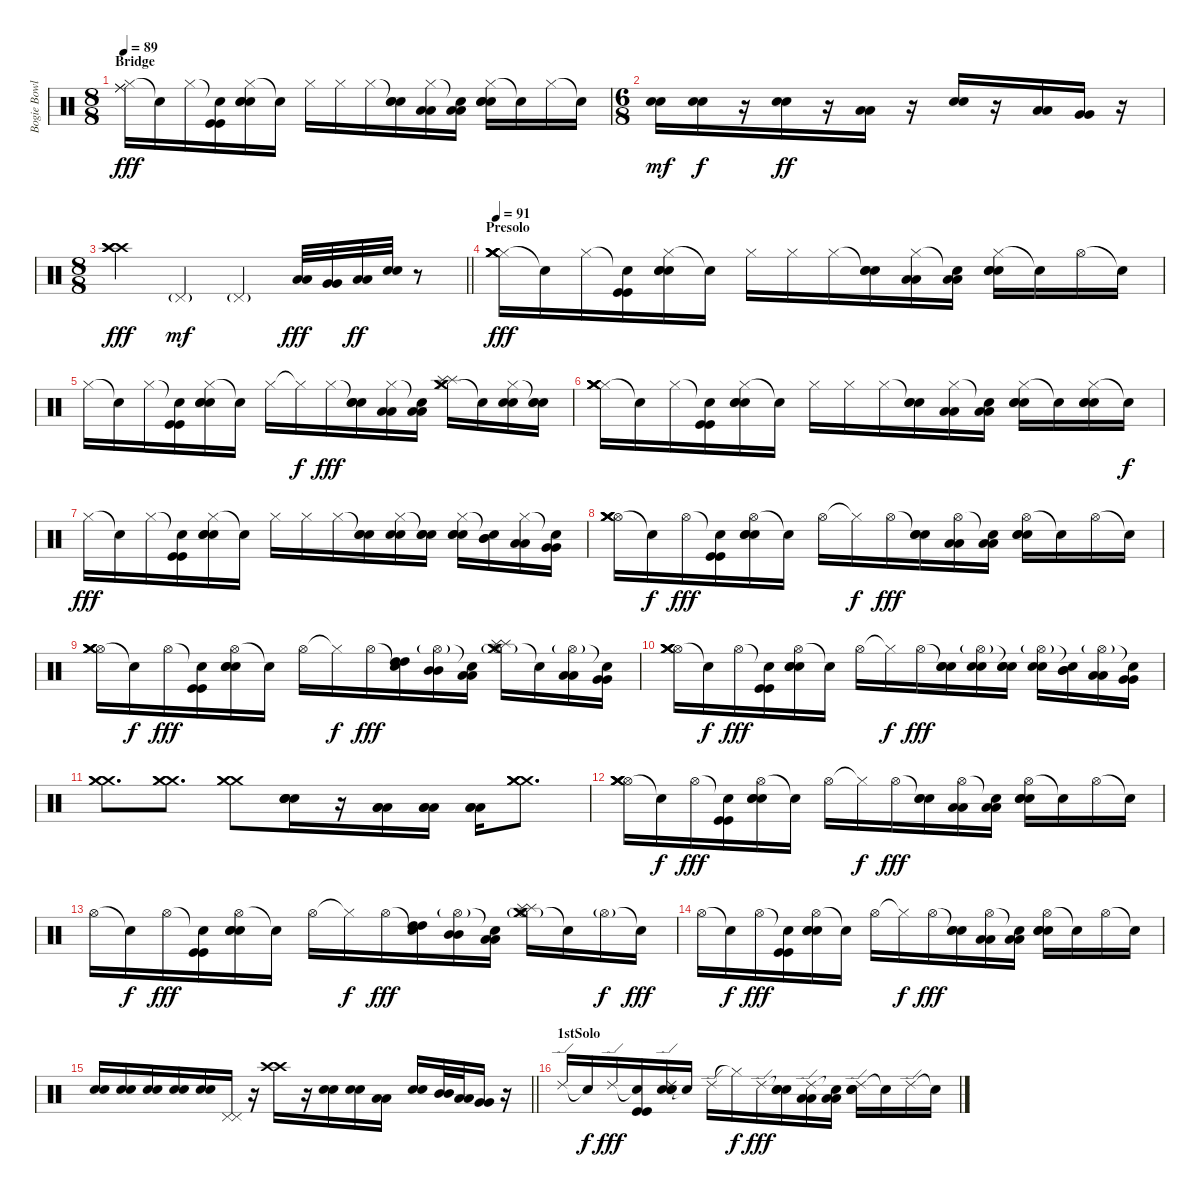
\track ("Bogie Bowles Drums" "Bogie Bowl") {instrument percussion}
\staff {score}
\articulation defaults
\ts (8 8)
\section ("" "Bridge")
\tempo 89
\clef neutral
\ks c
("Hi-Hat (closed)" "Ride (middle)" "Ride (middle)").16{dy fff} "Snare (hit)"{t}.16 "Hi-Hat (closed)".16 ("Snare (hit)"{t} "Kick (hit)" "Kick (hit)").16 ("Hi-Hat (closed)" "Snare (hit) 2" "Snare (hit) 2" "Snare (hit) 2").16 "Snare (hit)"{t}.16 "Hi-Hat (closed)".16 "Hi-Hat (closed)".16 "Hi-Hat (closed)".16 ("Snare (hit)"{t} "Snare (hit) 2" "Snare (hit) 2").16 ("Hi-Hat (closed)" "Low Tom (hit)" "Low Tom (hit)").16 ("Snare (hit)"{t} "Low Tom (hit)" "Low Tom (hit)").16 ("Hi-Hat (closed)" "Snare (hit) 2" "Snare (hit) 2" "Snare (hit) 2").16 "Snare (hit)"{t}.16 "Hi-Hat (closed)".16 "Snare (hit)"{t}.16 |
\ts (6 8)
("Snare (hit) 2" "Snare (hit) 2").16{dy mf} ("Snare (hit) 2" "Snare (hit) 2").16{dy f} r.16 ("Snare (hit) 2" "Snare (hit) 2").16{dy ff} r.16 ("Low Tom (hit)" "Low Tom (hit)").16 r.16 ("Snare (hit) 2" "Snare (hit) 2").16 r.16 ("Low Tom (hit)" "Low Tom (hit)").16 ("Very Low Tom (hit)" "Very Low Tom (hit)").16 r.16 |
\ts (8 8)
\barLineRight lightlight
("Crash high (hit)" "Crash high (hit)" "Crash high (hit)").4{dy fff} "Pedal Hi-Hat (hit)"{g}.4{dy mf} "Pedal Hi-Hat (hit)"{g}.4 ("Low Tom (hit)" "Low Tom (hit)").32{dy fff} ("Very Low Tom (hit)" "Very Low Tom (hit)").32 ("Low Floor Tom (hit)" "Low Floor Tom (hit)").32{dy ff} ("Electric Snare (hit)" "Electric Snare (hit)").32 r.8 |
\section ("" "Presolo")
\tempo 91
("Hi-Hat (closed)" "Crash medium (hit)" "Crash medium (hit)" "Crash medium (hit)" "Crash medium (hit)").16{dy fff} "Snare (hit)"{t}.16 "Hi-Hat (closed)".16 ("Snare (hit)"{t} "Kick (hit)" "Kick (hit)").16 ("Hi-Hat (closed)" "Snare (hit) 2" "Snare (hit) 2" "Snare (hit) 2").16 "Snare (hit)"{t}.16 "Hi-Hat (closed)".16 "Hi-Hat (closed)".16 "Hi-Hat (closed)".16 ("Snare (hit)"{t} "Snare (hit) 2" "Snare (hit) 2").16 ("Hi-Hat (closed)" "Low Tom (hit)" "Low Tom (hit)").16 ("Snare (hit)"{t} "Low Tom (hit)" "Low Tom (hit)").16 ("Hi-Hat (closed)" "Snare (hit) 2" "Snare (hit) 2" "Snare (hit) 2").16 "Snare (hit)"{t}.16 "Hi-Hat (open)".16 "Snare (hit)"{t}.16 |
"Hi-Hat (closed)".16 "Snare (hit)"{t}.16 "Hi-Hat (closed)".16 ("Snare (hit)"{t} "Kick (hit)" "Kick (hit)").16 ("Hi-Hat (closed)" "Snare (hit) 2" "Snare (hit) 2" "Snare (hit) 2").16 "Snare (hit)"{t}.16 "Hi-Hat (closed)".16 "Hi-Hat (closed)"{t}.16{dy f} "Hi-Hat (closed)".16{dy fff} ("Snare (hit)"{t} "Snare (hit) 2" "Snare (hit) 2").16 ("Hi-Hat (closed)" "Low Tom (hit)" "Low Tom (hit)").16 ("Snare (hit)"{t} "Low Tom (hit)" "Low Tom (hit)").16 ("Hi-Hat (closed)" "Splash (hit)" "Splash (hit)" "Crash medium (hit)" "Crash medium (hit)").16 "Snare (hit)"{t}.16 ("Hi-Hat (closed)" "Snare (hit) 2" "Snare (hit) 2").16 ("Snare (hit)"{t} "Snare (hit) 2" "Snare (hit) 2").16 |
("Hi-Hat (closed)" "Crash medium (hit)" "Crash medium (hit)" "Crash medium (hit)" "Crash medium (hit)").16 "Snare (hit)"{t}.16 "Hi-Hat (closed)".16 ("Snare (hit)"{t} "Kick (hit)" "Kick (hit)").16 ("Hi-Hat (closed)" "Snare (hit) 2" "Snare (hit) 2" "Snare (hit) 2").16 "Snare (hit)"{t}.16 "Hi-Hat (closed)".16 "Hi-Hat (closed)".16 "Hi-Hat (closed)".16 ("Snare (hit)"{t} "Snare (hit) 2" "Snare (hit) 2").16 ("Hi-Hat (closed)" "Low Tom (hit)" "Low Tom (hit)").16 ("Snare (hit)"{t} "Low Tom (hit)" "Low Tom (hit)").16 ("Hi-Hat (closed)" "Snare (hit) 2" "Snare (hit) 2" "Snare (hit) 2").16 "Snare (hit)"{t}.16 ("Hi-Hat (closed)" "Snare (hit) 2" "Snare (hit) 2" "Snare (hit) 2").16 "Snare (hit)"{t}.16{dy f} |
"Hi-Hat (closed)".16{dy fff} "Snare (hit)"{t}.16 "Hi-Hat (closed)".16 ("Snare (hit)"{t} "Kick (hit)" "Kick (hit)").16 ("Hi-Hat (closed)" "Snare (hit) 2" "Snare (hit) 2" "Snare (hit) 2").16 "Snare (hit)"{t}.16 "Hi-Hat (closed)".16 "Hi-Hat (closed)".16 "Hi-Hat (closed)".16 ("Snare (hit)"{t} "Snare (hit) 2" "Snare (hit) 2").16 ("Hi-Hat (closed)" "Snare (hit) 2" "Snare (hit) 2").16 ("Snare (hit)"{t} "Snare (hit) 2" "Snare (hit) 2").16 ("Hi-Hat (closed)" "Snare (hit) 2" "Snare (hit) 2" "Snare (hit) 2").16 ("Snare (hit)"{t} "Mid Tom (hit)" "Mid Tom (hit)").16 ("Hi-Hat (closed)" "Low Tom (hit)" "Low Tom (hit)").16 ("Snare (hit)"{t} "Very Low Tom (hit)" "Very Low Tom (hit)").16 |
("Hi-Hat (open)" "Crash medium (hit)" "Crash medium (hit)" "Crash medium (hit)" "Crash medium (hit)").16 "Snare (hit)"{t}.16{dy f} "Hi-Hat (open)".16{dy fff} ("Snare (hit)"{t} "Kick (hit)" "Kick (hit)").16 ("Hi-Hat (open)" "Snare (hit) 2" "Snare (hit) 2" "Snare (hit) 2").16 "Snare (hit)"{t}.16 "Hi-Hat (open)".16 "Hi-Hat (closed)"{t}.16{dy f} "Hi-Hat (open)".16{dy fff} ("Snare (hit)"{t} "Snare (hit) 2" "Snare (hit) 2").16 ("Hi-Hat (open)" "Low Tom (hit)" "Low Tom (hit)").16 ("Snare (hit)"{t} "Low Tom (hit)" "Low Tom (hit)").16 ("Hi-Hat (open)" "Snare (hit) 2" "Snare (hit) 2" "Snare (hit) 2").16 "Snare (hit)"{t}.16 "Hi-Hat (open)".16 "Snare (hit)"{t}.16 |
("Hi-Hat (open)" "Crash medium (hit)" "Crash medium (hit)" "Crash medium (hit)" "Crash medium (hit)").16 "Snare (hit)"{t}.16{dy f} "Hi-Hat (open)".16{dy fff} ("Snare (hit)"{t} "Kick (hit)" "Kick (hit)").16 ("Hi-Hat (open)" "Snare (hit) 2" "Snare (hit) 2" "Snare (hit) 2").16 "Snare (hit)"{t}.16 "Hi-Hat (open)".16 "Hi-Hat (closed)"{t}.16{dy f} "Hi-Hat (open)".16{dy fff} ("Snare (hit)"{t} "High Tom (hit)" "High Tom (hit)").16 ("Hi-Hat (open)"{g} "Mid Tom (hit)" "Mid Tom (hit)").16 ("Snare (hit)"{t} "Low Tom (hit)" "Low Tom (hit)").16 ("Hi-Hat (open)"{g} "Splash (hit)" "Splash (hit)" "Crash medium (hit)" "Crash medium (hit)").16 "Snare (hit)"{t}.16 ("Hi-Hat (open)"{g} "Low Tom (hit)" "Low Tom (hit)").16 ("Snare (hit)"{t} "Very Low Tom (hit)" "Very Low Tom (hit)").16 |
("Hi-Hat (open)" "Crash medium (hit)" "Crash medium (hit)" "Crash medium (hit)" "Crash medium (hit)").16 "Snare (hit)"{t}.16{dy f} "Hi-Hat (open)".16{dy fff} ("Snare (hit)"{t} "Kick (hit)" "Kick (hit)").16 ("Hi-Hat (open)" "Snare (hit) 2" "Snare (hit) 2" "Snare (hit) 2").16 "Snare (hit)"{t}.16 "Hi-Hat (open)".16 "Hi-Hat (closed)"{t}.16{dy f} "Hi-Hat (open)".16{dy fff} ("Snare (hit)"{t} "Snare (hit) 2" "Snare (hit) 2").16 ("Hi-Hat (open)"{g} "Snare (hit) 2" "Snare (hit) 2").16 ("Snare (hit)"{t} "Snare (hit) 2" "Snare (hit) 2").16 ("Hi-Hat (open)"{g} "Snare (hit) 2" "Snare (hit) 2").16 ("Snare (hit)"{t} "Mid Tom (hit)" "Mid Tom (hit)").16 ("Hi-Hat (open)"{g} "Low Tom (hit)" "Low Tom (hit)").16 ("Snare (hit)"{t} "Very Low Tom (hit)" "Very Low Tom (hit)").16 |
("Crash medium (hit)" "Crash medium (hit)" "Crash medium (hit)").8{d} ("Crash medium (hit)" "Crash medium (hit)" "Crash medium (hit)").8{d} ("Crash medium (hit)" "Crash medium (hit)" "Crash medium (hit)").8 ("Snare (hit) 2" "Snare (hit) 2" "Snare (hit) 2" "Snare (hit) 2").16 r.16 ("Low Tom (hit)" "Low Tom (hit)" "Low Tom (hit)").16 ("Low Tom (hit)" "Low Tom (hit)" "Low Tom (hit)").16 ("Low Tom (hit)" "Low Tom (hit)" "Low Tom (hit)").16 ("Crash medium (hit)" "Crash medium (hit)" "Crash medium (hit)" "Crash medium (hit)").8{d} |
("Hi-Hat (open)" "Crash medium (hit)" "Crash medium (hit)" "Crash medium (hit)" "Crash medium (hit)").16 "Snare (hit)"{t}.16{dy f} "Hi-Hat (open)".16{dy fff} ("Snare (hit)"{t} "Kick (hit)" "Kick (hit)").16 ("Hi-Hat (open)" "Snare (hit) 2" "Snare (hit) 2" "Snare (hit) 2").16 "Snare (hit)"{t}.16 "Hi-Hat (open)".16 "Hi-Hat (closed)"{t}.16{dy f} "Hi-Hat (open)".16{dy fff} ("Snare (hit)"{t} "Snare (hit) 2" "Snare (hit) 2").16 ("Hi-Hat (open)" "Low Tom (hit)" "Low Tom (hit)").16 ("Snare (hit)"{t} "Low Tom (hit)" "Low Tom (hit)").16 ("Hi-Hat (open)" "Snare (hit) 2" "Snare (hit) 2" "Snare (hit) 2").16 "Snare (hit)"{t}.16 "Hi-Hat (open)".16 "Snare (hit)"{t}.16 |
"Hi-Hat (open)".16 "Snare (hit)"{t}.16{dy f} "Hi-Hat (open)".16{dy fff} ("Snare (hit)"{t} "Kick (hit)" "Kick (hit)").16 ("Hi-Hat (open)" "Snare (hit) 2" "Snare (hit) 2" "Snare (hit) 2").16 "Snare (hit)"{t}.16 "Hi-Hat (open)".16 "Hi-Hat (closed)"{t}.16{dy f} "Hi-Hat (open)".16{dy fff} ("Snare (hit)"{t} "High Tom (hit)" "High Tom (hit)").16 ("Hi-Hat (open)"{g} "Mid Tom (hit)" "Mid Tom (hit)").16 ("Snare (hit)"{t} "Low Tom (hit)" "Low Tom (hit)").16 ("Hi-Hat (open)"{g} "Splash (hit)" "Splash (hit)" "Crash medium (hit)" "Crash medium (hit)").16 "Snare (hit)"{t}.16 "Hi-Hat (open)"{g}.16{dy f} "Snare (hit)"{t}.16{dy fff} |
"Hi-Hat (open)".16 "Snare (hit)"{t}.16{dy f} "Hi-Hat (open)".16{dy fff} ("Snare (hit)"{t} "Kick (hit)" "Kick (hit)").16 ("Hi-Hat (open)" "Snare (hit) 2" "Snare (hit) 2" "Snare (hit) 2").16 "Snare (hit)"{t}.16 "Hi-Hat (open)".16 "Hi-Hat (closed)"{t}.16{dy f} "Hi-Hat (open)".16{dy fff} ("Snare (hit)"{t} "Snare (hit) 2" "Snare (hit) 2").16 ("Hi-Hat (open)" "Low Tom (hit)" "Low Tom (hit)").16 ("Snare (hit)"{t} "Low Tom (hit)" "Low Tom (hit)").16 ("Hi-Hat (open)" "Snare (hit) 2" "Snare (hit) 2" "Snare (hit) 2").16 "Snare (hit)"{t}.16 "Hi-Hat (open)".16 "Snare (hit)"{t}.16 |
\barLineRight lightlight
("Snare (hit) 2" "Snare (hit) 2").16 ("Snare (hit) 2" "Snare (hit) 2").16 ("Snare (hit) 2" "Snare (hit) 2").16 ("Snare (hit) 2" "Snare (hit) 2").16 ("Snare (hit) 2" "Snare (hit) 2").16 ("Pedal Hi-Hat (hit)" "Pedal Hi-Hat (hit)").16 r.16 ("Crash high (hit)" "Crash high (hit)").16 r.16 ("Snare (hit) 2" "Snare (hit) 2").16 ("Snare (hit) 2" "Snare (hit) 2").16 ("Low Tom (hit)" "Low Tom (hit)").16 ("Snare (hit) 2" "Snare (hit) 2").16 ("Mid Tom (hit)" "Mid Tom (hit)").32 ("Low Tom (hit)" "Low Tom (hit)").32 ("Very Low Tom (hit)" "Very Low Tom (hit)").16 r.16 |
\section ("" "1stSolo")
"Ride (edge) 2".16 "Snare (hit)"{t}.16{dy f} "Ride (edge) 2".16{dy fff} ("Snare (hit)"{t} "Kick (hit)" "Kick (hit)").16 ("Ride (edge) 2" "Snare (hit) 2" "Snare (hit) 2" "Snare (hit) 2").16 "Snare (hit)"{t}.16 "Ride (edge) 2".16 "Hi-Hat (closed)"{t}.16{dy f} "Ride (edge) 2".16{dy fff} ("Snare (hit)"{t} "Snare (hit) 2" "Snare (hit) 2").16 ("Ride (edge) 2" "Low Tom (hit)" "Low Tom (hit)").16 ("Snare (hit)"{t} "Low Tom (hit)" "Low Tom (hit)").16 ("Ride (edge) 2" "Snare (hit) 2" "Snare (hit) 2" "Snare (hit) 2").16 "Snare (hit)"{t}.16 "Ride (edge) 2".16 "Snare (hit)"{t}.16
